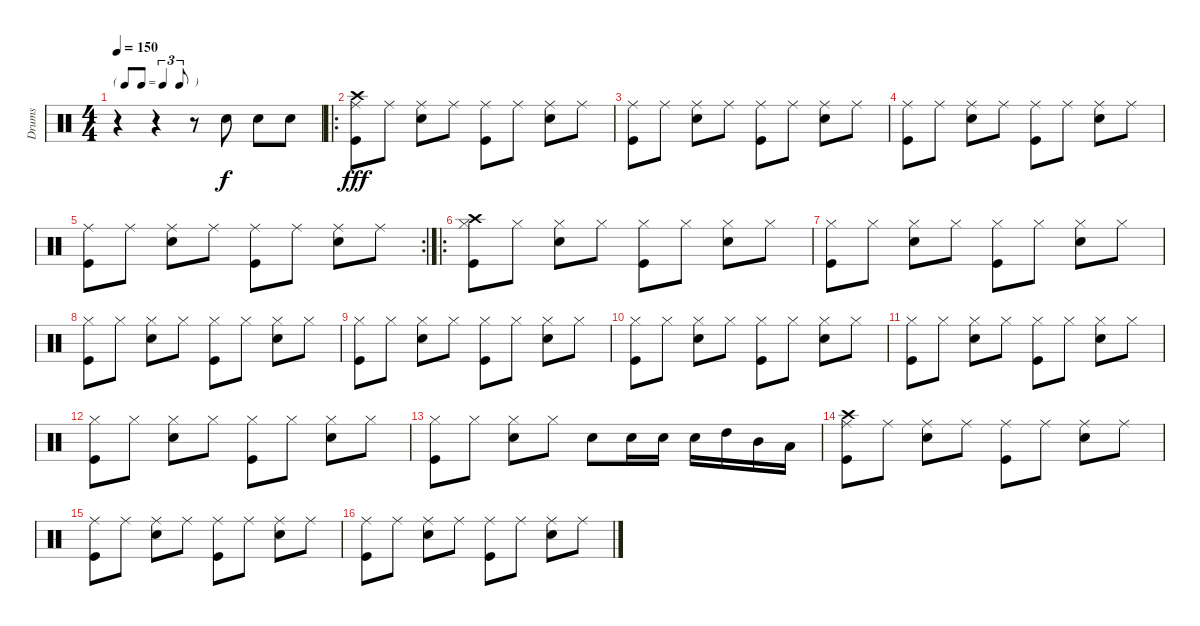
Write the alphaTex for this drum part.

\track ("Drums" "Drums") {instrument percussion}
\staff {score}
\articulation defaults
\ts (4 4)
\tf triplet8th
\tempo 150
\clef neutral
\ks c
r.4{dy f} r.4 r.8 "Snare (hit) 2".8 "Snare (hit) 2".8 "Snare (hit) 2".8 |
\ro
("Kick (hit)" "Ride (middle)" "Crash high (hit)").8{dy fff} "Ride (middle)".8 ("Snare (hit) 2" "Ride (middle)").8 "Ride (middle)".8 ("Kick (hit)" "Ride (middle)").8 "Ride (middle)".8 ("Snare (hit) 2" "Ride (middle)").8 "Ride (middle)".8 |
("Kick (hit)" "Ride (middle)").8 "Ride (middle)".8 ("Snare (hit) 2" "Ride (middle)").8 "Ride (middle)".8 ("Kick (hit)" "Ride (middle)").8 "Ride (middle)".8 ("Snare (hit) 2" "Ride (middle)").8 "Ride (middle)".8 |
("Kick (hit)" "Ride (middle)").8 "Ride (middle)".8 ("Snare (hit) 2" "Ride (middle)").8 "Ride (middle)".8 ("Kick (hit)" "Ride (middle)").8 "Ride (middle)".8 ("Snare (hit) 2" "Ride (middle)").8 "Ride (middle)".8 |
\rc 2
("Kick (hit)" "Ride (middle)").8 "Ride (middle)".8 ("Snare (hit) 2" "Ride (middle)").8 "Ride (middle)".8 ("Kick (hit)" "Ride (middle)").8 "Ride (middle)".8 ("Snare (hit) 2" "Ride (middle)").8 "Ride (middle)".8 |
\ro
("Kick (hit)" "Hi-Hat (closed)" "Crash high (hit)").8 "Hi-Hat (closed)".8 ("Snare (hit) 2" "Hi-Hat (closed)").8 "Hi-Hat (closed)".8 ("Kick (hit)" "Hi-Hat (closed)").8 "Hi-Hat (closed)".8 ("Snare (hit) 2" "Hi-Hat (closed)").8 "Hi-Hat (closed)".8 |
("Kick (hit)" "Hi-Hat (closed)").8 "Hi-Hat (closed)".8 ("Snare (hit) 2" "Hi-Hat (closed)").8 "Hi-Hat (closed)".8 ("Kick (hit)" "Hi-Hat (closed)").8 "Hi-Hat (closed)".8 ("Snare (hit) 2" "Hi-Hat (closed)").8 "Hi-Hat (closed)".8 |
("Kick (hit)" "Hi-Hat (closed)").8 "Hi-Hat (closed)".8 ("Snare (hit) 2" "Hi-Hat (closed)").8 "Hi-Hat (closed)".8 ("Kick (hit)" "Hi-Hat (closed)").8 "Hi-Hat (closed)".8 ("Snare (hit) 2" "Hi-Hat (closed)").8 "Hi-Hat (closed)".8 |
("Kick (hit)" "Hi-Hat (closed)").8 "Hi-Hat (closed)".8 ("Snare (hit) 2" "Hi-Hat (closed)").8 "Hi-Hat (closed)".8 ("Kick (hit)" "Hi-Hat (closed)").8 "Hi-Hat (closed)".8 ("Snare (hit) 2" "Hi-Hat (closed)").8 "Hi-Hat (closed)".8 |
("Kick (hit)" "Hi-Hat (closed)").8 "Hi-Hat (closed)".8 ("Snare (hit) 2" "Hi-Hat (closed)").8 "Hi-Hat (closed)".8 ("Kick (hit)" "Hi-Hat (closed)").8 "Hi-Hat (closed)".8 ("Snare (hit) 2" "Hi-Hat (closed)").8 "Hi-Hat (closed)".8 |
("Kick (hit)" "Hi-Hat (closed)").8 "Hi-Hat (closed)".8 ("Snare (hit) 2" "Hi-Hat (closed)").8 "Hi-Hat (closed)".8 ("Kick (hit)" "Hi-Hat (closed)").8 "Hi-Hat (closed)".8 ("Snare (hit) 2" "Hi-Hat (closed)").8 "Hi-Hat (closed)".8 |
("Kick (hit)" "Hi-Hat (closed)").8 "Hi-Hat (closed)".8 ("Snare (hit) 2" "Hi-Hat (closed)").8 "Hi-Hat (closed)".8 ("Kick (hit)" "Hi-Hat (closed)").8 "Hi-Hat (closed)".8 ("Snare (hit) 2" "Hi-Hat (closed)").8 "Hi-Hat (closed)".8 |
("Kick (hit)" "Hi-Hat (closed)").8 "Hi-Hat (closed)".8 ("Snare (hit) 2" "Hi-Hat (closed)").8 "Hi-Hat (closed)".8 "Snare (hit) 2".8 "Snare (hit) 2".16 "Snare (hit) 2".16 "Snare (hit) 2".16 "High Tom (hit)".16 "Mid Tom (hit)".16 "Low Tom (hit)".16 |
("Kick (hit)" "Ride (middle)" "Crash high (hit)").8 "Ride (middle)".8 ("Snare (hit) 2" "Ride (middle)").8 "Ride (middle)".8 ("Kick (hit)" "Ride (middle)").8 "Ride (middle)".8 ("Snare (hit) 2" "Ride (middle)").8 "Ride (middle)".8 |
("Kick (hit)" "Ride (middle)").8 "Ride (middle)".8 ("Snare (hit) 2" "Ride (middle)").8 "Ride (middle)".8 ("Kick (hit)" "Ride (middle)").8 "Ride (middle)".8 ("Snare (hit) 2" "Ride (middle)").8 "Ride (middle)".8 |
("Kick (hit)" "Ride (middle)").8 "Ride (middle)".8 ("Snare (hit) 2" "Ride (middle)").8 "Ride (middle)".8 ("Kick (hit)" "Ride (middle)").8 "Ride (middle)".8 ("Snare (hit) 2" "Ride (middle)").8 "Ride (middle)".8
